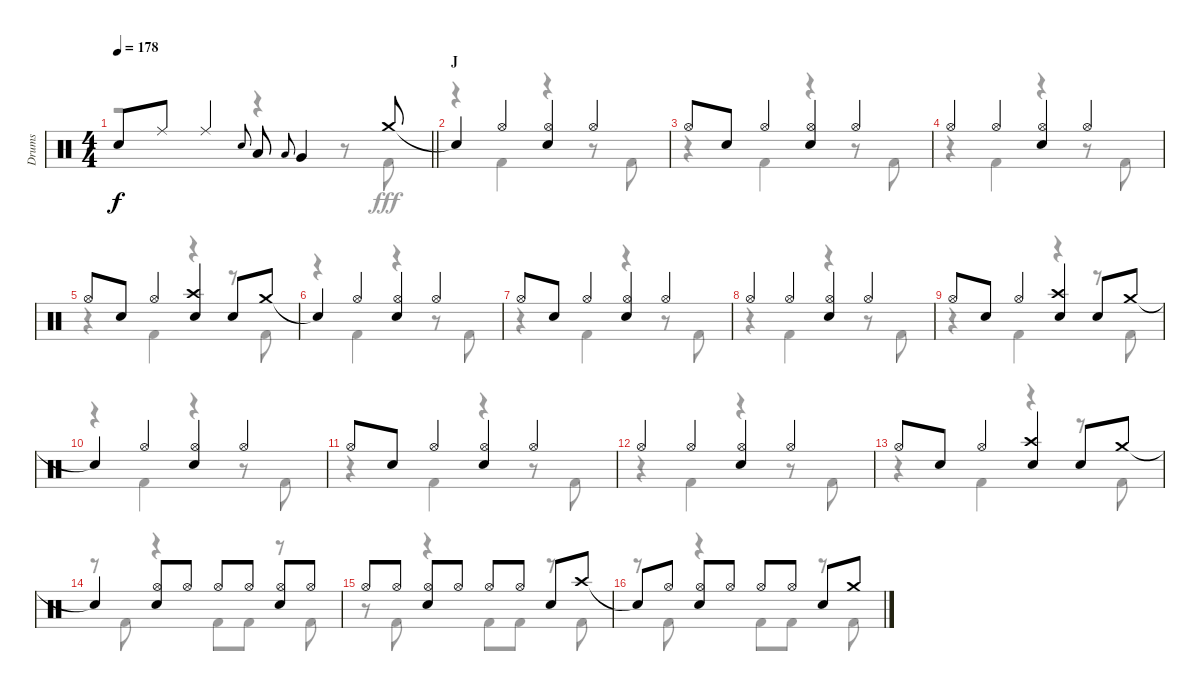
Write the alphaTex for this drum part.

\track ("Drums" "Drums") {instrument percussion}
\staff {score}
\articulation defaults
\voice
\ts (4 4)
\tempo 178
\clef neutral
\barLineRight lightlight
\ks c "Snare (hit)"{t}.8{dy f} "Ride (middle)".8 "Ride (middle)".4 "Snare (hit) 2".8{gr onbeat} "Low Tom (hit)".8 "Low Tom (hit)".8{gr onbeat} "Very Low Tom (hit)".4 "Crash medium (hit)".8
|
\section ("" "J")
"Snare (hit)"{t}.4 "Hi-Hat (open)".4 ("Hi-Hat (open)" "Snare (hit) 2").4 "Hi-Hat (open)".4 |
"Hi-Hat (open)".8 "Snare (hit) 2".8 "Hi-Hat (open)".4 ("Hi-Hat (open)" "Snare (hit) 2").4 "Hi-Hat (open)".4 |
"Hi-Hat (open)".4 "Hi-Hat (open)".4 ("Hi-Hat (open)" "Snare (hit) 2").4 "Hi-Hat (open)".4 |
"Hi-Hat (open)".8 "Snare (hit) 2".8 "Hi-Hat (open)".4 ("Crash high (hit)" "Snare (hit) 2").4 "Snare (hit) 2".8 "Crash medium (hit)".8 |
"Snare (hit)"{t}.4 "Hi-Hat (open)".4 ("Hi-Hat (open)" "Snare (hit) 2").4 "Hi-Hat (open)".4 |
"Hi-Hat (open)".8 "Snare (hit) 2".8 "Hi-Hat (open)".4 ("Hi-Hat (open)" "Snare (hit) 2").4 "Hi-Hat (open)".4 |
"Hi-Hat (open)".4 "Hi-Hat (open)".4 ("Hi-Hat (open)" "Snare (hit) 2").4 "Hi-Hat (open)".4 |
"Hi-Hat (open)".8 "Snare (hit) 2".8 "Hi-Hat (open)".4 ("Crash high (hit)" "Snare (hit) 2").4 "Snare (hit) 2".8 "Crash medium (hit)".8 |
"Snare (hit)"{t}.4 "Hi-Hat (open)".4 ("Hi-Hat (open)" "Snare (hit) 2").4 "Hi-Hat (open)".4 |
"Hi-Hat (open)".8 "Snare (hit) 2".8 "Hi-Hat (open)".4 ("Hi-Hat (open)" "Snare (hit) 2").4 "Hi-Hat (open)".4 |
"Hi-Hat (open)".4 "Hi-Hat (open)".4 ("Hi-Hat (open)" "Snare (hit) 2").4 "Hi-Hat (open)".4 |
"Hi-Hat (open)".8 "Snare (hit) 2".8 "Hi-Hat (open)".4 ("Crash high (hit)" "Snare (hit) 2").4 "Snare (hit) 2".8 "Crash medium (hit)".8 |
"Snare (hit)"{t}.4 ("Hi-Hat (open)" "Snare (hit) 2").8 "Hi-Hat (open)".8 "Hi-Hat (open)".8 "Hi-Hat (open)".8 ("Hi-Hat (open)" "Snare (hit) 2").8 "Hi-Hat (open)".8 |
"Hi-Hat (open)".8 "Hi-Hat (open)".8 ("Hi-Hat (open)" "Snare (hit) 2").8 "Hi-Hat (open)".8 "Hi-Hat (open)".8 "Hi-Hat (open)".8 "Snare (hit) 2".8 "Crash high (hit)".8 |
"Snare (hit)"{t}.8 "Hi-Hat (open)".8 ("Hi-Hat (open)" "Snare (hit) 2").8 "Hi-Hat (open)".8 "Hi-Hat (open)".8 "Hi-Hat (open)".8 "Snare (hit) 2".8 "Crash medium (hit)".8
\voice
\clef neutral
\ottava regular
\simile none
\barLineRight lightlight
\ks c
r.2{dy fff} r.4 r.8 "Kick (hit) 2".8 |
r.4 "Kick (hit) 2".4 r.4 r.8 "Kick (hit) 2".8 |
r.4 "Kick (hit) 2".4 r.4 r.8 "Kick (hit) 2".8 |
r.4 "Kick (hit) 2".4 r.4 r.8 "Kick (hit) 2".8 |
r.4 "Kick (hit) 2".4 r.4 r.8 "Kick (hit) 2".8 |
r.4 "Kick (hit) 2".4 r.4 r.8 "Kick (hit) 2".8 |
r.4 "Kick (hit) 2".4 r.4 r.8 "Kick (hit) 2".8 |
r.4 "Kick (hit) 2".4 r.4 r.8 "Kick (hit) 2".8 |
r.4 "Kick (hit) 2".4 r.4 r.8 "Kick (hit) 2".8 |
r.4 "Kick (hit) 2".4 r.4 r.8 "Kick (hit) 2".8 |
r.4 "Kick (hit) 2".4 r.4 r.8 "Kick (hit) 2".8 |
r.4 "Kick (hit) 2".4 r.4 r.8 "Kick (hit) 2".8 |
r.4 "Kick (hit) 2".4 r.4 r.8 "Kick (hit) 2".8 |
r.8 "Kick (hit) 2".8 r.4 "Kick (hit) 2".8 "Kick (hit) 2".8 r.8 "Kick (hit) 2".8 |
r.8 "Kick (hit) 2".8 r.4 "Kick (hit) 2".8 "Kick (hit) 2".8 r.8 "Kick (hit) 2".8 |
r.8 "Kick (hit) 2".8 r.4 "Kick (hit) 2".8 "Kick (hit) 2".8 r.8 "Kick (hit) 2".8
